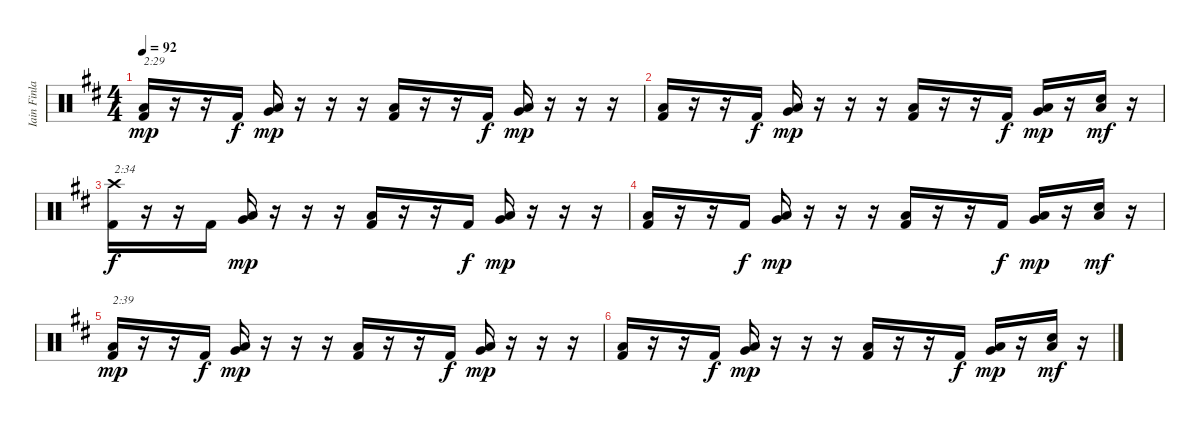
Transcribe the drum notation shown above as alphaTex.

\track ("Iain Finlay" "Iain Finla") {instrument percussion}
\staff {score}
\articulation defaults
\ts (4 4)
\tempo 92
\clef neutral
\ks bminor
("Low Floor Tom (hit)" "Kick (hit) 2").16{txt "2:29" dy mp} r.16 r.16 "Kick (hit) 2".16{dy f} ("Low Floor Tom (hit)" "Very Low Tom (hit)").16{dy mp} r.16 r.16 r.16 ("Low Floor Tom (hit)" "Kick (hit) 2").16 r.16 r.16 "Kick (hit) 2".16{dy f} ("Low Floor Tom (hit)" "Very Low Tom (hit)").16{dy mp} r.16 r.16 r.16 |
("Low Floor Tom (hit)" "Kick (hit) 2").16 r.16 r.16 "Kick (hit) 2".16{dy f} ("Low Floor Tom (hit)" "Very Low Tom (hit)").16{dy mp} r.16 r.16 r.16 ("Low Floor Tom (hit)" "Kick (hit) 2").16 r.16 r.16 "Kick (hit) 2".16{dy f} ("Low Floor Tom (hit)" "Very Low Tom (hit)").16{dy mp} r.16 ("Low Floor Tom (hit)" "Electric Snare (hit)").16{dy mf} r.16 |
("Crash high (hit)" "Kick (hit) 2").16{txt "2:34" dy f} r.16 r.16 "Kick (hit) 2".16 ("Low Floor Tom (hit)" "Very Low Tom (hit)").16{dy mp} r.16 r.16 r.16 ("Low Floor Tom (hit)" "Kick (hit) 2").16 r.16 r.16 "Kick (hit) 2".16{dy f} ("Low Floor Tom (hit)" "Very Low Tom (hit)").16{dy mp} r.16 r.16 r.16 |
("Low Floor Tom (hit)" "Kick (hit) 2").16 r.16 r.16 "Kick (hit) 2".16{dy f} ("Low Floor Tom (hit)" "Very Low Tom (hit)").16{dy mp} r.16 r.16 r.16 ("Low Floor Tom (hit)" "Kick (hit) 2").16 r.16 r.16 "Kick (hit) 2".16{dy f} ("Low Floor Tom (hit)" "Very Low Tom (hit)").16{dy mp} r.16 ("Low Floor Tom (hit)" "Electric Snare (hit)").16{dy mf} r.16 |
("Low Floor Tom (hit)" "Kick (hit) 2").16{txt "2:39" dy mp} r.16 r.16 "Kick (hit) 2".16{dy f} ("Low Floor Tom (hit)" "Very Low Tom (hit)").16{dy mp} r.16 r.16 r.16 ("Low Floor Tom (hit)" "Kick (hit) 2").16 r.16 r.16 "Kick (hit) 2".16{dy f} ("Low Floor Tom (hit)" "Very Low Tom (hit)").16{dy mp} r.16 r.16 r.16 |
("Low Floor Tom (hit)" "Kick (hit) 2").16 r.16 r.16 "Kick (hit) 2".16{dy f} ("Low Floor Tom (hit)" "Very Low Tom (hit)").16{dy mp} r.16 r.16 r.16 ("Low Floor Tom (hit)" "Kick (hit) 2").16 r.16 r.16 "Kick (hit) 2".16{dy f} ("Low Floor Tom (hit)" "Very Low Tom (hit)").16{dy mp} r.16 ("Low Floor Tom (hit)" "Electric Snare (hit)").16{dy mf} r.16
